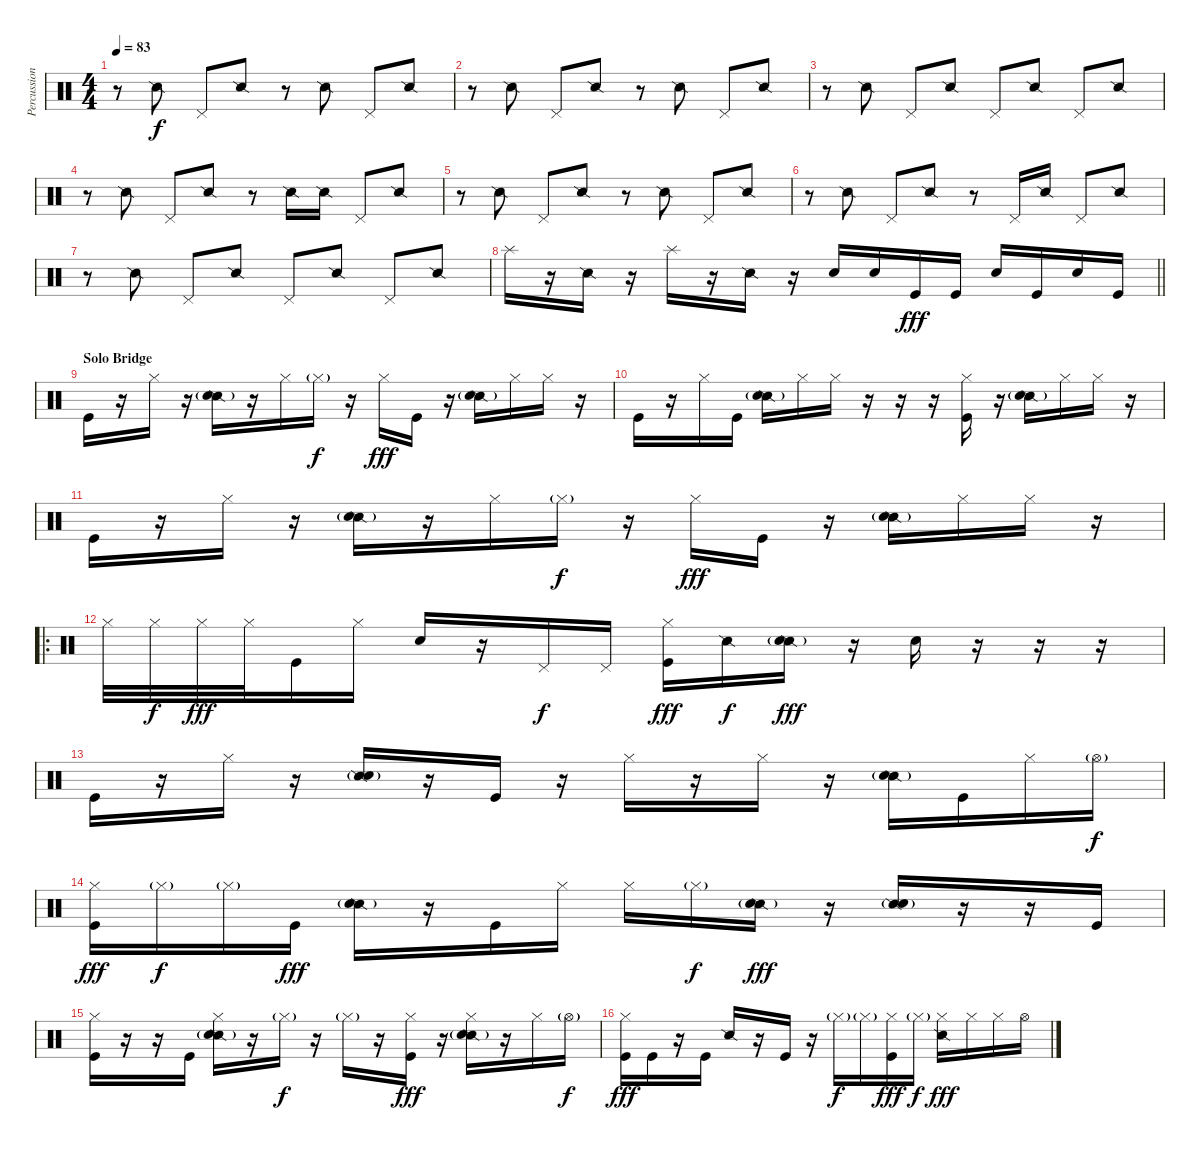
\track ("Percussion" "Percussion") {instrument percussion}
\staff {score}
\articulation defaults
\ts (4 4)
\tempo 83
\clef neutral
\ks c
r.8{dy fff} "Snare (side stick) 2".8{dy f} "Pedal Hi-Hat (hit)".8 "Snare (side stick) 2".8 r.8 "Snare (side stick) 2".8 "Pedal Hi-Hat (hit)".8 "Snare (side stick) 2".8 |
r.8 "Snare (side stick) 2".8 "Pedal Hi-Hat (hit)".8 "Snare (side stick) 2".8 r.8 "Snare (side stick) 2".8 "Pedal Hi-Hat (hit)".8 "Snare (side stick) 2".8 |
r.8 "Snare (side stick) 2".8 "Pedal Hi-Hat (hit)".8 "Snare (side stick) 2".8 "Pedal Hi-Hat (hit)".8 "Snare (side stick) 2".8 "Pedal Hi-Hat (hit)".8 "Snare (side stick) 2".8 |
r.8 "Snare (side stick) 2".8 "Pedal Hi-Hat (hit)".8 "Snare (side stick) 2".8 r.8 "Snare (side stick) 2".16 "Snare (side stick) 2".16 "Pedal Hi-Hat (hit)".8 "Snare (side stick) 2".8 |
r.8 "Snare (side stick) 2".8 "Pedal Hi-Hat (hit)".8 "Snare (side stick) 2".8 r.8 "Snare (side stick) 2".8 "Pedal Hi-Hat (hit)".8 "Snare (side stick) 2".8 |
r.8 "Snare (side stick) 2".8 "Pedal Hi-Hat (hit)".8 "Snare (side stick) 2".8 r.8 "Pedal Hi-Hat (hit)".16 "Snare (side stick) 2".16 "Pedal Hi-Hat (hit)".8 "Snare (side stick) 2".8 |
r.8 "Snare (side stick) 2".8 "Pedal Hi-Hat (hit)".8 "Snare (side stick) 2".8 "Pedal Hi-Hat (hit)".8 "Snare (side stick) 2".8 "Pedal Hi-Hat (hit)".8 "Snare (side stick) 2".8 |
\barLineRight lightlight "Splash (hit)".16
r.16 "Snare (side stick) 2".16 r.16 "Splash (hit)".16 r.16 "Snare (side stick) 2".16 r.16 "Hand Clap (hit)".16 "Hand Clap (hit)".16 "Kick (hit)".16{dy fff} "Kick (hit)".16 "Hand Clap (hit)".16 "Kick (hit)".16 "Hand Clap (hit)".16 "Kick (hit)".16 |
\section ("" "Solo Bridge")
"Kick (hit)".16 r.16 "Hi-Hat (closed)".16 r.16 ("Snare (side stick) 2" "Snare (hit) 2"{g}).16 r.16 "Hi-Hat (closed)".16 "Hi-Hat (closed)"{g}.16{dy f} r.16 "Hi-Hat (closed)".16{dy fff} "Kick (hit)".16 r.16 ("Snare (side stick) 2" "Snare (hit) 2"{g}).16 "Hi-Hat (closed)".16 "Hi-Hat (closed)".16 r.16 |
"Kick (hit)".16 r.16 "Hi-Hat (closed)".16 "Kick (hit)".16 ("Snare (side stick) 2" "Snare (hit) 2"{g}).16 "Hi-Hat (closed)".16 "Hi-Hat (closed)".16 r.16 r.16 r.16 ("Kick (hit)" "Hi-Hat (closed)").16 r.16 ("Snare (side stick) 2" "Snare (hit) 2"{g}).16 "Hi-Hat (closed)".16 "Hi-Hat (closed)".16 r.16 |
"Kick (hit)".16 r.16 "Hi-Hat (closed)".16 r.16 ("Snare (side stick) 2" "Snare (hit) 2"{g}).16 r.16 "Hi-Hat (closed)".16 "Hi-Hat (closed)"{g}.16{dy f} r.16 "Hi-Hat (closed)".16{dy fff} "Kick (hit)".16 r.16 ("Snare (side stick) 2" "Snare (hit) 2"{g}).16 "Hi-Hat (closed)".16 "Hi-Hat (closed)".16 r.16 |
\ro "Hi-Hat (closed)".32 "Hi-Hat (closed)".32{dy f} "Hi-Hat (closed)".32{dy fff} "Hi-Hat (closed)".32 "Kick (hit)".16 "Hi-Hat (closed)".16 "Snare (hit) 2".16
r.16 "Pedal Hi-Hat (hit)".16{dy f} "Pedal Hi-Hat (hit)".16 ("Kick (hit)" "Hi-Hat (closed)").16{dy fff} "Snare (side stick) 2".16{dy f} ("Snare (side stick) 2" "Snare (hit) 2"{g}).16{dy fff} r.16 "Snare (hit) 2".16 r.16 r.16 r.16 |
"Kick (hit)".16 r.16 "Hi-Hat (closed)".16 r.16 ("Snare (side stick) 2" "Snare (hit) 2"{g}).16 r.16 "Kick (hit)".16 r.16 "Hi-Hat (closed)".16 r.16 "Hi-Hat (closed)".16 r.16 ("Snare (side stick) 2" "Snare (hit) 2"{g}).16 "Kick (hit)".16 "Hi-Hat (closed)".16 "Hi-Hat (open)"{g}.16{dy f} |
("Kick (hit)" "Hi-Hat (closed)").16{dy fff} "Hi-Hat (closed)"{g}.16{dy f} "Hi-Hat (closed)"{g}.16 "Kick (hit)".16{dy fff} ("Snare (side stick) 2" "Snare (hit) 2"{g}).16 r.16 "Kick (hit)".16 "Hi-Hat (closed)".16 "Hi-Hat (closed)".16 "Hi-Hat (closed)"{g}.16{dy f} ("Snare (side stick) 2" "Snare (hit) 2"{g}).16{dy fff} r.16 ("Snare (side stick) 2" "Snare (hit) 2"{g}).16 r.16 r.16 "Kick (hit)".16 |
("Kick (hit)" "Hi-Hat (closed)").16 r.16 r.16 "Kick (hit)".16 ("Snare (side stick) 2" "Snare (hit) 2"{g} "Hi-Hat (closed)").16 r.16 "Hi-Hat (closed)"{g}.16{dy f} r.16 "Hi-Hat (closed)"{g}.16 r.16 ("Kick (hit)" "Hi-Hat (closed)").16{dy fff} r.16 ("Snare (side stick) 2" "Snare (hit) 2"{g} "Hi-Hat (closed)").16 r.16 "Hi-Hat (closed)".16 "Hi-Hat (open)"{g}.16{dy f} |
("Kick (hit)" "Hi-Hat (closed)").16{dy fff} "Kick (hit)".16 r.16 "Kick (hit)".16 "Snare (side stick) 2".16 r.16 "Kick (hit)".16 r.16 "Hi-Hat (closed)"{g}.16{dy f} "Hi-Hat (closed)"{g}.16 ("Kick (hit)" "Hi-Hat (closed)").16{dy fff} "Hi-Hat (closed)"{g}.16{dy f} ("Snare (side stick) 2" "Hi-Hat (closed)").16{dy fff} "Hi-Hat (closed)".16 "Hi-Hat (closed)".16 "Hi-Hat (open)".16
